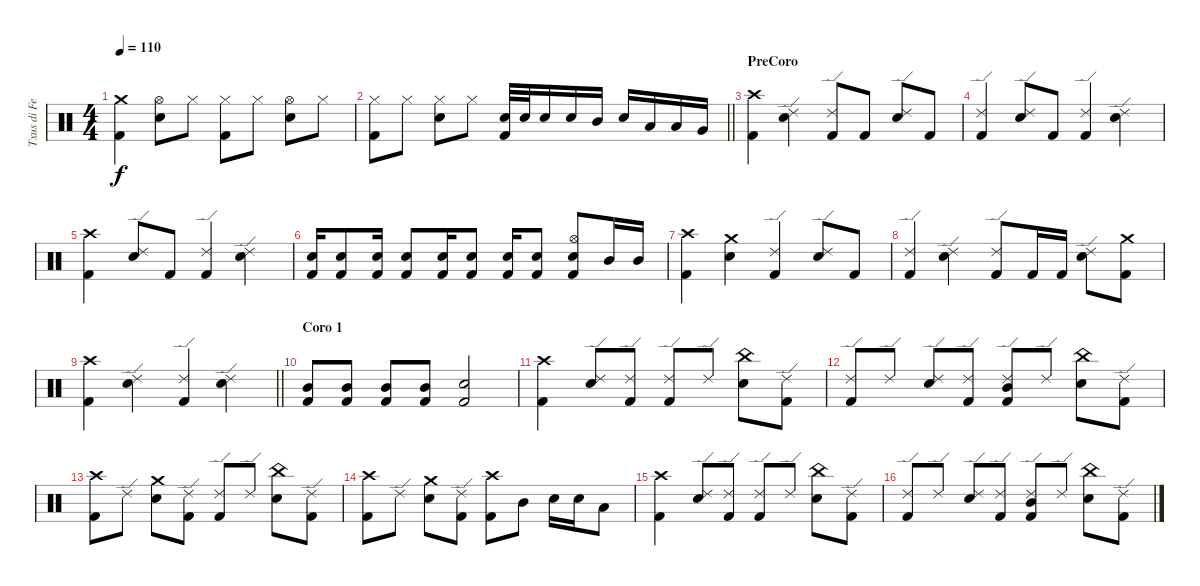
\track ("Txus di Fellatio" "Txus di Fe") {instrument percussion}
\staff {score}
\articulation defaults
\ts (4 4)
\tempo 110
\clef neutral
\ks c
("Kick (hit) 2" "Crash medium (hit)").4{dy f} ("Hi-Hat (open)" "Electric Snare (hit)").8 "Hi-Hat (closed)".8 ("Kick (hit) 2" "Hi-Hat (closed)").8 "Hi-Hat (closed)".8 ("Hi-Hat (open)" "Electric Snare (hit)").8 "Hi-Hat (closed)".8 |
\barLineRight lightlight
("Kick (hit) 2" "Hi-Hat (closed)").8 "Hi-Hat (closed)".8 ("Hi-Hat (closed)" "Electric Snare (hit)").8 "Hi-Hat (closed)".8 ("Kick (hit) 2" "Electric Snare (hit)").32 "Electric Snare (hit)".32 "Electric Snare (hit)".16 "Electric Snare (hit)".16 "Mid Tom (hit)".16 "Electric Snare (hit)".16 "Low Tom (hit)".16 "Low Tom (hit)".16 "Very Low Tom (hit)".16 |
\section ("" "PreCoro")
("Kick (hit) 2" "Crash high (hit)").4 ("Ride (edge) 2" "Electric Snare (hit)").4 ("Kick (hit) 2" "Ride (edge) 2").8 "Kick (hit) 2".8 ("Ride (edge) 2" "Electric Snare (hit)").8 "Kick (hit) 2".8 |
("Kick (hit) 2" "Ride (edge) 2").4 ("Ride (edge) 2" "Electric Snare (hit)").8 "Kick (hit) 2".8 ("Kick (hit) 2" "Ride (edge) 2").4 ("Ride (edge) 2" "Electric Snare (hit)").4 |
("Kick (hit) 2" "Crash high (hit)").4 ("Ride (edge) 2" "Electric Snare (hit)").8 "Kick (hit) 2".8 ("Kick (hit) 2" "Ride (edge) 2").4 ("Ride (edge) 2" "Electric Snare (hit)").4 |
("Kick (hit) 2" "Electric Snare (hit)").16 ("Kick (hit) 2" "Electric Snare (hit)").8 ("Kick (hit) 2" "Electric Snare (hit)").16 ("Kick (hit) 2" "Electric Snare (hit)").8 ("Kick (hit) 2" "Electric Snare (hit)").16 ("Kick (hit) 2" "Electric Snare (hit)").8 ("Kick (hit) 2" "Electric Snare (hit)").16 ("Kick (hit) 2" "Electric Snare (hit)").8 ("Kick (hit) 2" "Hi-Hat (open)" "Electric Snare (hit)").8 "Mid Tom (hit)".16 "Mid Tom (hit)".16 |
("Kick (hit) 2" "Crash high (hit)").4 ("Crash medium (hit)" "Electric Snare (hit)").4 ("Kick (hit) 2" "Ride (edge) 2").4 ("Ride (edge) 2" "Electric Snare (hit)").8 "Kick (hit) 2".8 |
("Kick (hit) 2" "Ride (edge) 2").4 ("Ride (edge) 2" "Electric Snare (hit)").4 ("Kick (hit) 2" "Ride (edge) 2").8 "Kick (hit) 2".16 "Kick (hit) 2".16 ("Ride (edge) 2" "Electric Snare (hit)").8 ("Kick (hit) 2" "Crash medium (hit)").8 |
\barLineRight lightlight
("Kick (hit) 2" "Crash high (hit)").4 ("Ride (edge) 2" "Electric Snare (hit)").4 ("Kick (hit) 2" "Ride (edge) 2").4 ("Ride (edge) 2" "Electric Snare (hit)").4 |
\section ("" "Coro 1")
("Kick (hit) 2" "Mid Tom (hit)").8 ("Kick (hit) 2" "Mid Tom (hit)").8 ("Kick (hit) 2" "Mid Tom (hit)").8 ("Kick (hit) 2" "Mid Tom (hit)").8 ("Kick (hit) 2" "Electric Snare (hit)").2 |
("Kick (hit) 2" "Crash high (hit)").4 ("Ride (edge) 2" "Electric Snare (hit)").8 ("Kick (hit) 2" "Ride (edge) 2").8 ("Kick (hit) 2" "Ride (edge) 2").8 "Ride (edge) 2".8 ("China (hit)" "Electric Snare (hit)").8 ("Kick (hit) 2" "Ride (edge) 2").8 |
("Kick (hit) 2" "Ride (edge) 2").8 "Ride (edge) 2".8 ("Ride (edge) 2" "Electric Snare (hit)").8 ("Kick (hit) 2" "Ride (edge) 2").8 ("Kick (hit) 2" "Ride (edge) 2" "Mid Tom (hit)").8 "Ride (edge) 2".8 ("China (hit)" "Electric Snare (hit)").8 ("Kick (hit) 2" "Ride (edge) 2").8 |
("Kick (hit) 2" "Crash high (hit)").8 "Ride (edge) 2".8 ("Crash medium (hit)" "Electric Snare (hit)").8 ("Kick (hit) 2" "Ride (edge) 2").8 ("Kick (hit) 2" "Ride (edge) 2").8 "Ride (edge) 2".8 ("China (hit)" "Electric Snare (hit)").8 ("Kick (hit) 2" "Ride (edge) 2").8 |
("Kick (hit) 2" "Crash high (hit)").8 "Ride (edge) 2".8 ("Crash medium (hit)" "Electric Snare (hit)").8 ("Kick (hit) 2" "Ride (edge) 2").8 ("Kick (hit) 2" "Crash high (hit)").8 "Mid Tom (hit)".8 "Electric Snare (hit)".16 "Electric Snare (hit)".16 "Low Tom (hit)".8 |
("Kick (hit) 2" "Crash high (hit)").4 ("Ride (edge) 2" "Electric Snare (hit)").8 ("Kick (hit) 2" "Ride (edge) 2").8 ("Kick (hit) 2" "Ride (edge) 2").8 "Ride (edge) 2".8 ("China (hit)" "Electric Snare (hit)").8 ("Kick (hit) 2" "Ride (edge) 2").8 |
("Kick (hit) 2" "Ride (edge) 2").8 "Ride (edge) 2".8 ("Ride (edge) 2" "Electric Snare (hit)").8 ("Kick (hit) 2" "Ride (edge) 2").8 ("Kick (hit) 2" "Ride (edge) 2" "Mid Tom (hit)").8 "Ride (edge) 2".8 ("China (hit)" "Electric Snare (hit)").8 ("Kick (hit) 2" "Ride (edge) 2").8
